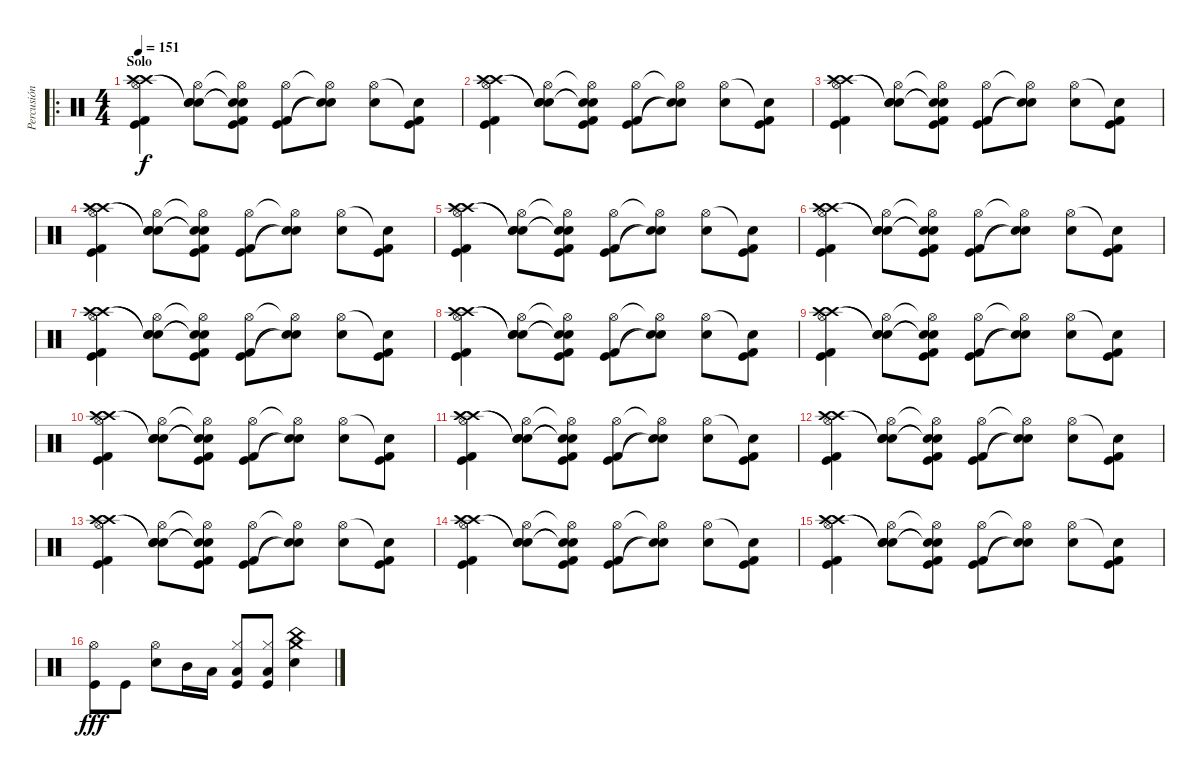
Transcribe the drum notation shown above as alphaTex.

\track ("Percusión" "Percusión") {instrument percussion}
\staff {score}
\articulation defaults
\ro
\ts (4 4)
\section ("" "Solo")
\tempo 151
\clef neutral
\ks c
("Hi-Hat (open)" "Crash high (hit)" "Crash high (hit)" "Kick (hit)" "Kick (hit) 2").4{dy f} ("Hi-Hat (open)" "Snare (hit)"{t} "Snare (hit)"{t} "Electric Snare (hit)").8 ("Hi-Hat (open)"{t} "Snare (hit)"{t} "Snare (hit)"{t} "Kick (hit)" "Kick (hit) 2").8 ("Hi-Hat (open)" "Kick (hit)" "Kick (hit) 2").8 ("Hi-Hat (open)"{t} "Electric Snare (hit)"{t} "Snare (hit)"{t}).8 ("Hi-Hat (open)" "Electric Snare (hit)").8 ("Snare (hit)"{t} "Kick (hit)" "Kick (hit) 2").8 |
("Hi-Hat (open)" "Crash high (hit)" "Crash high (hit)" "Kick (hit)" "Kick (hit) 2").4 ("Hi-Hat (open)" "Snare (hit)"{t} "Snare (hit)"{t} "Electric Snare (hit)").8 ("Hi-Hat (open)"{t} "Snare (hit)"{t} "Snare (hit)"{t} "Kick (hit)" "Kick (hit) 2").8 ("Hi-Hat (open)" "Kick (hit)" "Kick (hit) 2").8 ("Hi-Hat (open)"{t} "Electric Snare (hit)"{t} "Snare (hit)"{t}).8 ("Hi-Hat (open)" "Electric Snare (hit)").8 ("Snare (hit)"{t} "Kick (hit)" "Kick (hit) 2").8 |
("Hi-Hat (open)" "Crash high (hit)" "Crash high (hit)" "Kick (hit)" "Kick (hit) 2").4 ("Hi-Hat (open)" "Snare (hit)"{t} "Snare (hit)"{t} "Electric Snare (hit)").8 ("Hi-Hat (open)"{t} "Snare (hit)"{t} "Snare (hit)"{t} "Kick (hit)" "Kick (hit) 2").8 ("Hi-Hat (open)" "Kick (hit)" "Kick (hit) 2").8 ("Hi-Hat (open)"{t} "Electric Snare (hit)"{t} "Snare (hit)"{t}).8 ("Hi-Hat (open)" "Electric Snare (hit)").8 ("Snare (hit)"{t} "Kick (hit)" "Kick (hit) 2").8 |
("Hi-Hat (open)" "Crash high (hit)" "Crash high (hit)" "Kick (hit)" "Kick (hit) 2").4 ("Hi-Hat (open)" "Snare (hit)"{t} "Snare (hit)"{t} "Electric Snare (hit)").8 ("Hi-Hat (open)"{t} "Snare (hit)"{t} "Snare (hit)"{t} "Kick (hit)" "Kick (hit) 2").8 ("Hi-Hat (open)" "Kick (hit)" "Kick (hit) 2").8 ("Hi-Hat (open)"{t} "Electric Snare (hit)"{t} "Snare (hit)"{t}).8 ("Hi-Hat (open)" "Electric Snare (hit)").8 ("Snare (hit)"{t} "Kick (hit)" "Kick (hit) 2").8 |
("Hi-Hat (open)" "Crash high (hit)" "Crash high (hit)" "Kick (hit)" "Kick (hit) 2").4 ("Hi-Hat (open)" "Snare (hit)"{t} "Snare (hit)"{t} "Electric Snare (hit)").8 ("Hi-Hat (open)"{t} "Snare (hit)"{t} "Snare (hit)"{t} "Kick (hit)" "Kick (hit) 2").8 ("Hi-Hat (open)" "Kick (hit)" "Kick (hit) 2").8 ("Hi-Hat (open)"{t} "Electric Snare (hit)"{t} "Snare (hit)"{t}).8 ("Hi-Hat (open)" "Electric Snare (hit)").8 ("Snare (hit)"{t} "Kick (hit)" "Kick (hit) 2").8 |
("Hi-Hat (open)" "Crash high (hit)" "Crash high (hit)" "Kick (hit)" "Kick (hit) 2").4 ("Hi-Hat (open)" "Snare (hit)"{t} "Snare (hit)"{t} "Electric Snare (hit)").8 ("Hi-Hat (open)"{t} "Snare (hit)"{t} "Snare (hit)"{t} "Kick (hit)" "Kick (hit) 2").8 ("Hi-Hat (open)" "Kick (hit)" "Kick (hit) 2").8 ("Hi-Hat (open)"{t} "Electric Snare (hit)"{t} "Snare (hit)"{t}).8 ("Hi-Hat (open)" "Electric Snare (hit)").8 ("Snare (hit)"{t} "Kick (hit)" "Kick (hit) 2").8 |
("Hi-Hat (open)" "Crash high (hit)" "Crash high (hit)" "Kick (hit)" "Kick (hit) 2").4 ("Hi-Hat (open)" "Snare (hit)"{t} "Snare (hit)"{t} "Electric Snare (hit)").8 ("Hi-Hat (open)"{t} "Snare (hit)"{t} "Snare (hit)"{t} "Kick (hit)" "Kick (hit) 2").8 ("Hi-Hat (open)" "Kick (hit)" "Kick (hit) 2").8 ("Hi-Hat (open)"{t} "Electric Snare (hit)"{t} "Snare (hit)"{t}).8 ("Hi-Hat (open)" "Electric Snare (hit)").8 ("Snare (hit)"{t} "Kick (hit)" "Kick (hit) 2").8 |
("Hi-Hat (open)" "Crash high (hit)" "Crash high (hit)" "Kick (hit)" "Kick (hit) 2").4 ("Hi-Hat (open)" "Snare (hit)"{t} "Snare (hit)"{t} "Electric Snare (hit)").8 ("Hi-Hat (open)"{t} "Snare (hit)"{t} "Snare (hit)"{t} "Kick (hit)" "Kick (hit) 2").8 ("Hi-Hat (open)" "Kick (hit)" "Kick (hit) 2").8 ("Hi-Hat (open)"{t} "Electric Snare (hit)"{t} "Snare (hit)"{t}).8 ("Hi-Hat (open)" "Electric Snare (hit)").8 ("Snare (hit)"{t} "Kick (hit)" "Kick (hit) 2").8 |
("Hi-Hat (open)" "Crash high (hit)" "Crash high (hit)" "Kick (hit)" "Kick (hit) 2").4 ("Hi-Hat (open)" "Snare (hit)"{t} "Snare (hit)"{t} "Electric Snare (hit)").8 ("Hi-Hat (open)"{t} "Snare (hit)"{t} "Snare (hit)"{t} "Kick (hit)" "Kick (hit) 2").8 ("Hi-Hat (open)" "Kick (hit)" "Kick (hit) 2").8 ("Hi-Hat (open)"{t} "Electric Snare (hit)"{t} "Snare (hit)"{t}).8 ("Hi-Hat (open)" "Electric Snare (hit)").8 ("Snare (hit)"{t} "Kick (hit)" "Kick (hit) 2").8 |
("Hi-Hat (open)" "Crash high (hit)" "Crash high (hit)" "Kick (hit)" "Kick (hit) 2").4 ("Hi-Hat (open)" "Snare (hit)"{t} "Snare (hit)"{t} "Electric Snare (hit)").8 ("Hi-Hat (open)"{t} "Snare (hit)"{t} "Snare (hit)"{t} "Kick (hit)" "Kick (hit) 2").8 ("Hi-Hat (open)" "Kick (hit)" "Kick (hit) 2").8 ("Hi-Hat (open)"{t} "Electric Snare (hit)"{t} "Snare (hit)"{t}).8 ("Hi-Hat (open)" "Electric Snare (hit)").8 ("Snare (hit)"{t} "Kick (hit)" "Kick (hit) 2").8 |
("Hi-Hat (open)" "Crash high (hit)" "Crash high (hit)" "Kick (hit)" "Kick (hit) 2").4 ("Hi-Hat (open)" "Snare (hit)"{t} "Snare (hit)"{t} "Electric Snare (hit)").8 ("Hi-Hat (open)"{t} "Snare (hit)"{t} "Snare (hit)"{t} "Kick (hit)" "Kick (hit) 2").8 ("Hi-Hat (open)" "Kick (hit)" "Kick (hit) 2").8 ("Hi-Hat (open)"{t} "Electric Snare (hit)"{t} "Snare (hit)"{t}).8 ("Hi-Hat (open)" "Electric Snare (hit)").8 ("Snare (hit)"{t} "Kick (hit)" "Kick (hit) 2").8 |
("Hi-Hat (open)" "Crash high (hit)" "Crash high (hit)" "Kick (hit)" "Kick (hit) 2").4 ("Hi-Hat (open)" "Snare (hit)"{t} "Snare (hit)"{t} "Electric Snare (hit)").8 ("Hi-Hat (open)"{t} "Snare (hit)"{t} "Snare (hit)"{t} "Kick (hit)" "Kick (hit) 2").8 ("Hi-Hat (open)" "Kick (hit)" "Kick (hit) 2").8 ("Hi-Hat (open)"{t} "Electric Snare (hit)"{t} "Snare (hit)"{t}).8 ("Hi-Hat (open)" "Electric Snare (hit)").8 ("Snare (hit)"{t} "Kick (hit)" "Kick (hit) 2").8 |
("Hi-Hat (open)" "Crash high (hit)" "Crash high (hit)" "Kick (hit)" "Kick (hit) 2").4 ("Hi-Hat (open)" "Snare (hit)"{t} "Snare (hit)"{t} "Electric Snare (hit)").8 ("Hi-Hat (open)"{t} "Snare (hit)"{t} "Snare (hit)"{t} "Kick (hit)" "Kick (hit) 2").8 ("Hi-Hat (open)" "Kick (hit)" "Kick (hit) 2").8 ("Hi-Hat (open)"{t} "Electric Snare (hit)"{t} "Snare (hit)"{t}).8 ("Hi-Hat (open)" "Electric Snare (hit)").8 ("Snare (hit)"{t} "Kick (hit)" "Kick (hit) 2").8 |
("Hi-Hat (open)" "Crash high (hit)" "Crash high (hit)" "Kick (hit)" "Kick (hit) 2").4 ("Hi-Hat (open)" "Snare (hit)"{t} "Snare (hit)"{t} "Electric Snare (hit)").8 ("Hi-Hat (open)"{t} "Snare (hit)"{t} "Snare (hit)"{t} "Kick (hit)" "Kick (hit) 2").8 ("Hi-Hat (open)" "Kick (hit)" "Kick (hit) 2").8 ("Hi-Hat (open)"{t} "Electric Snare (hit)"{t} "Snare (hit)"{t}).8 ("Hi-Hat (open)" "Electric Snare (hit)").8 ("Snare (hit)"{t} "Kick (hit)" "Kick (hit) 2").8 |
("Hi-Hat (open)" "Crash high (hit)" "Crash high (hit)" "Kick (hit)" "Kick (hit) 2").4 ("Hi-Hat (open)" "Snare (hit)"{t} "Snare (hit)"{t} "Electric Snare (hit)").8 ("Hi-Hat (open)"{t} "Snare (hit)"{t} "Snare (hit)"{t} "Kick (hit)" "Kick (hit) 2").8 ("Hi-Hat (open)" "Kick (hit)" "Kick (hit) 2").8 ("Hi-Hat (open)"{t} "Electric Snare (hit)"{t} "Snare (hit)"{t}).8 ("Hi-Hat (open)" "Electric Snare (hit)").8 ("Snare (hit)"{t} "Kick (hit)" "Kick (hit) 2").8 |
("Hi-Hat (open)" "Kick (hit)").8{dy fff} "Kick (hit)".8 ("Hi-Hat (open)" "Snare (hit) 2").8 "Mid Tom (hit)".16 "Low Tom (hit)".16 ("Hi-Hat (closed)" "Low Floor Tom (hit)" "Kick (hit)").8 ("Hi-Hat (closed)" "Low Floor Tom (hit)" "Kick (hit)").8 ("Crash medium (hit)" "China (hit)" "Snare (hit) 2").4
